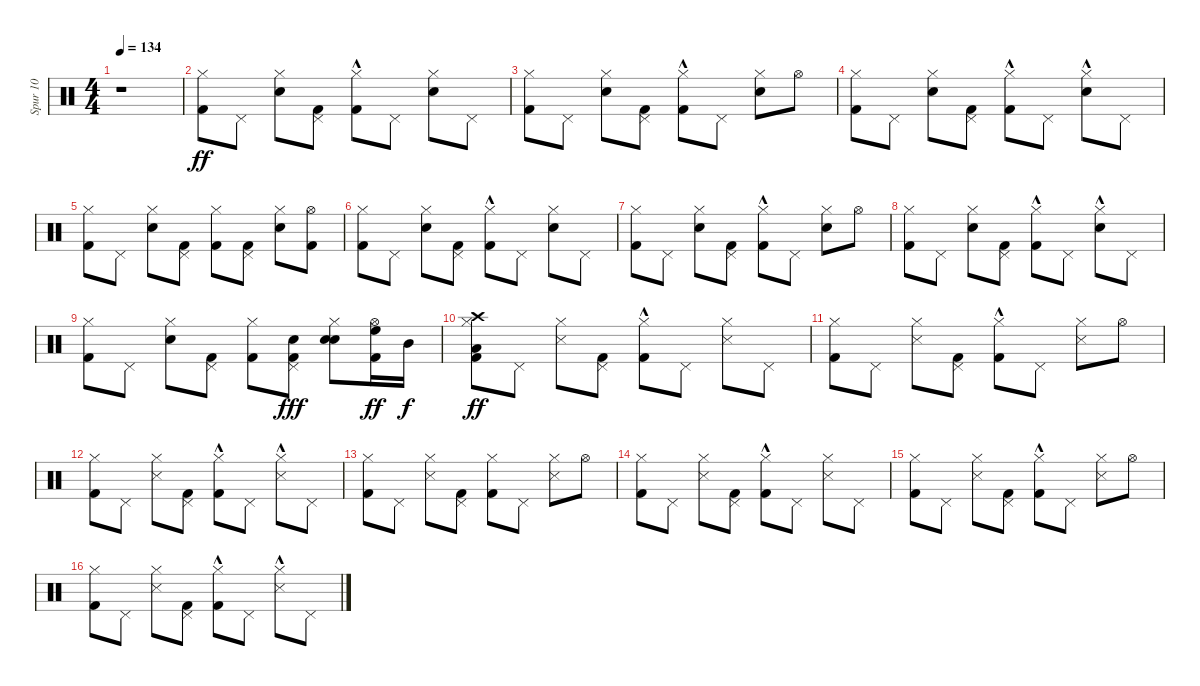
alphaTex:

\track ("Spur 10" "Spur 10") {instrument percussion}
\staff {score}
\articulation defaults
\ts (4 4)
\tempo 134
\clef neutral
\ks c
r.1{dy ff} |
("Kick (hit) 2" "Hi-Hat (closed)").8 "Pedal Hi-Hat (hit)".8 ("Electric Snare (hit)" "Hi-Hat (closed)").8 ("Kick (hit) 2" "Pedal Hi-Hat (hit)").8 ("Kick (hit) 2"{hac} "Hi-Hat (closed)").8 "Pedal Hi-Hat (hit)".8 ("Electric Snare (hit)" "Hi-Hat (closed)").8 "Pedal Hi-Hat (hit)".8 |
("Kick (hit) 2" "Hi-Hat (closed)").8 "Pedal Hi-Hat (hit)".8 ("Electric Snare (hit)" "Hi-Hat (closed)").8 ("Kick (hit) 2" "Pedal Hi-Hat (hit)").8 ("Kick (hit) 2"{hac} "Hi-Hat (closed)").8 "Pedal Hi-Hat (hit)".8 ("Electric Snare (hit)" "Hi-Hat (closed)").8 "Hi-Hat (open)".8 |
("Kick (hit) 2" "Hi-Hat (closed)").8 "Pedal Hi-Hat (hit)".8 ("Electric Snare (hit)" "Hi-Hat (closed)").8 ("Kick (hit) 2" "Pedal Hi-Hat (hit)").8 ("Kick (hit) 2"{hac} "Hi-Hat (closed)").8 "Pedal Hi-Hat (hit)".8 ("Electric Snare (hit)" "Hi-Hat (closed)"{hac}).8 "Pedal Hi-Hat (hit)".8 |
("Kick (hit) 2" "Hi-Hat (closed)").8 "Pedal Hi-Hat (hit)".8 ("Electric Snare (hit)" "Hi-Hat (closed)").8 ("Kick (hit) 2" "Pedal Hi-Hat (hit)").8 ("Kick (hit) 2" "Hi-Hat (closed)").8 ("Kick (hit) 2" "Pedal Hi-Hat (hit)").8 ("Electric Snare (hit)" "Hi-Hat (closed)").8 ("Kick (hit) 2" "Hi-Hat (open)").8 |
("Kick (hit) 2" "Hi-Hat (closed)").8 "Pedal Hi-Hat (hit)".8 ("Electric Snare (hit)" "Hi-Hat (closed)").8 ("Kick (hit) 2" "Pedal Hi-Hat (hit)").8 ("Kick (hit) 2"{hac} "Hi-Hat (closed)").8 "Pedal Hi-Hat (hit)".8 ("Electric Snare (hit)" "Hi-Hat (closed)").8 "Pedal Hi-Hat (hit)".8 |
("Kick (hit) 2" "Hi-Hat (closed)").8 "Pedal Hi-Hat (hit)".8 ("Electric Snare (hit)" "Hi-Hat (closed)").8 ("Kick (hit) 2" "Pedal Hi-Hat (hit)").8 ("Kick (hit) 2"{hac} "Hi-Hat (closed)").8 "Pedal Hi-Hat (hit)".8 ("Electric Snare (hit)" "Hi-Hat (closed)").8 "Hi-Hat (open)".8 |
("Kick (hit) 2" "Hi-Hat (closed)").8 "Pedal Hi-Hat (hit)".8 ("Electric Snare (hit)" "Hi-Hat (closed)").8 ("Kick (hit) 2" "Pedal Hi-Hat (hit)").8 ("Kick (hit) 2"{hac} "Hi-Hat (closed)").8 "Pedal Hi-Hat (hit)".8 ("Electric Snare (hit)" "Hi-Hat (closed)"{hac}).8 "Pedal Hi-Hat (hit)".8 |
("Kick (hit) 2" "Hi-Hat (closed)").8 "Pedal Hi-Hat (hit)".8 ("Electric Snare (hit)" "Hi-Hat (closed)").8 ("Kick (hit) 2" "Pedal Hi-Hat (hit)").8 ("Kick (hit) 2" "Hi-Hat (closed)").8 ("Kick (hit) 2" "Pedal Hi-Hat (hit)" "Electric Snare (hit)").8{dy fff} ("Electric Snare (hit)" "Hi-Hat (closed)" "Electric Snare (hit)").8 ("Kick (hit) 2" "Hi-Hat (open)" "High Floor Tom (hit)").16{dy ff} "Mid Tom (hit)".16{dy f} |
("Kick (hit) 2" "Hi-Hat (closed)" "Low Tom (hit)" "Crash high (hit)").8{dy ff} "Pedal Hi-Hat (hit)".8 ("Snare (side stick) 3" "Hi-Hat (closed)").8 ("Kick (hit) 2" "Pedal Hi-Hat (hit)").8 ("Kick (hit) 2"{hac} "Hi-Hat (closed)").8 "Pedal Hi-Hat (hit)".8 ("Snare (side stick) 3" "Hi-Hat (closed)").8 "Pedal Hi-Hat (hit)".8 |
("Kick (hit) 2" "Hi-Hat (closed)").8 "Pedal Hi-Hat (hit)".8 ("Snare (side stick) 3" "Hi-Hat (closed)").8 ("Kick (hit) 2" "Pedal Hi-Hat (hit)").8 ("Kick (hit) 2"{hac} "Hi-Hat (closed)").8 "Pedal Hi-Hat (hit)".8 ("Snare (side stick) 3" "Hi-Hat (closed)").8 "Hi-Hat (open)".8 |
("Kick (hit) 2" "Hi-Hat (closed)").8 "Pedal Hi-Hat (hit)".8 ("Snare (side stick) 3" "Hi-Hat (closed)").8 ("Kick (hit) 2" "Pedal Hi-Hat (hit)").8 ("Kick (hit) 2"{hac} "Hi-Hat (closed)").8 "Pedal Hi-Hat (hit)".8 ("Snare (side stick) 3" "Hi-Hat (closed)"{hac}).8 "Pedal Hi-Hat (hit)".8 |
("Kick (hit) 2" "Hi-Hat (closed)").8 "Pedal Hi-Hat (hit)".8 ("Snare (side stick) 3" "Hi-Hat (closed)").8 ("Kick (hit) 2" "Pedal Hi-Hat (hit)").8 ("Kick (hit) 2" "Hi-Hat (closed)").8 "Pedal Hi-Hat (hit)".8 ("Snare (side stick) 3" "Hi-Hat (closed)").8 "Hi-Hat (open)".8 |
("Kick (hit) 2" "Hi-Hat (closed)").8 "Pedal Hi-Hat (hit)".8 ("Snare (side stick) 3" "Hi-Hat (closed)").8 ("Kick (hit) 2" "Pedal Hi-Hat (hit)").8 ("Kick (hit) 2"{hac} "Hi-Hat (closed)").8 "Pedal Hi-Hat (hit)".8 ("Snare (side stick) 3" "Hi-Hat (closed)").8 "Pedal Hi-Hat (hit)".8 |
("Kick (hit) 2" "Hi-Hat (closed)").8 "Pedal Hi-Hat (hit)".8 ("Snare (side stick) 3" "Hi-Hat (closed)").8 ("Kick (hit) 2" "Pedal Hi-Hat (hit)").8 ("Kick (hit) 2"{hac} "Hi-Hat (closed)").8 "Pedal Hi-Hat (hit)".8 ("Snare (side stick) 3" "Hi-Hat (closed)").8 "Hi-Hat (open)".8 |
("Kick (hit) 2" "Hi-Hat (closed)").8 "Pedal Hi-Hat (hit)".8 ("Snare (side stick) 3" "Hi-Hat (closed)").8 ("Kick (hit) 2" "Pedal Hi-Hat (hit)").8 ("Kick (hit) 2"{hac} "Hi-Hat (closed)").8 "Pedal Hi-Hat (hit)".8 ("Snare (side stick) 3" "Hi-Hat (closed)"{hac}).8 "Pedal Hi-Hat (hit)".8
